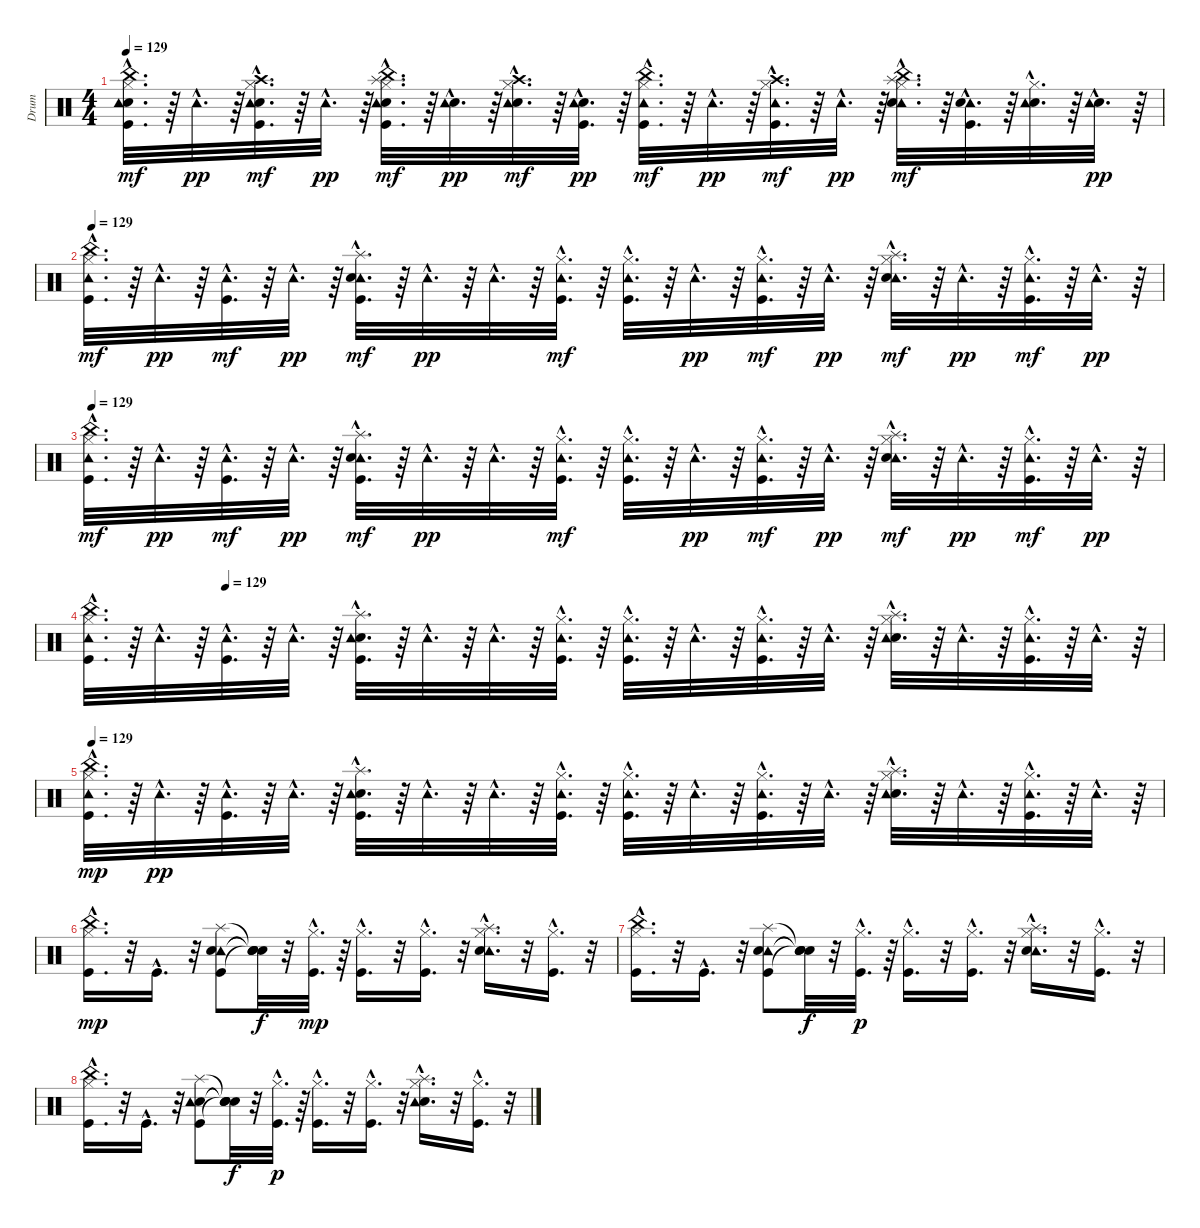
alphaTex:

\track ("Drum" "Drum") {instrument percussion}
\staff {score}
\articulation defaults
\ts (4 4)
\tempo 129
\clef neutral
\ks c
("China (hit)"{hac} "Snare (hit) 2"{hac} "Tambourine (hit)"{hac} "Kick (hit)"{hac} "Hi-Hat (closed)"{hac}).32{d dy mf} r.64 "Tambourine (hit)"{hac}.32{d dy pp} r.64 ("Crash high (hit)"{hac} "Snare (hit) 2"{hac} "Kick (hit)"{hac} "Tambourine (hit)"{hac} "Hi-Hat (closed)"{hac}).32{d dy mf} r.64 "Tambourine (hit)"{hac}.32{d dy pp} r.64 ("China (hit)"{hac} "Snare (hit) 2"{hac} "Splash (hit)"{hac} "Kick (hit)"{hac} "Tambourine (hit)"{hac} "Hi-Hat (closed)"{hac}).32{d dy mf} r.64 ("Snare (hit) 2"{hac} "Tambourine (hit)"{hac}).32{d dy pp} r.64 ("Crash high (hit)"{hac} "Snare (hit) 2"{hac} "Tambourine (hit)"{hac} "Hi-Hat (closed)"{hac}).32{d dy mf} r.64 ("Snare (hit) 2"{hac} "Kick (hit)"{hac} "Tambourine (hit)"{hac}).32{d dy pp} r.64 ("China (hit)"{hac} "Tambourine (hit)"{hac} "Hi-Hat (closed)"{hac} "Kick (hit)"{hac}).32{d dy mf} r.64 "Tambourine (hit)"{hac}.32{d dy pp} r.64 ("Crash high (hit)"{hac} "Tambourine (hit)"{hac} "Hi-Hat (closed)"{hac} "Kick (hit)"{hac}).32{d dy mf} r.64 "Tambourine (hit)"{hac}.32{d dy pp} r.64 ("China (hit)"{hac} "Tambourine (hit)"{hac} "Hi-Hat (closed)"{hac} "Snare (hit) 2"{hac} "Splash (hit)"{hac}).32{d dy mf} r.64 ("Tambourine (hit)"{hac} "Snare (hit) 2"{hac} "Kick (hit)"{hac}).32{d} r.64 ("Snare (hit) 2"{hac} "Tambourine (hit)"{hac} "Hi-Hat (closed)"{hac}).32{d} r.64 ("Snare (hit) 2"{hac} "Tambourine (hit)"{hac}).32{d dy pp} r.64 |
\tempo 129
("China (hit)"{hac} "Tambourine (hit)"{hac} "Hi-Hat (closed)"{hac} "Kick (hit)"{hac}).32{d dy mf} r.64 "Tambourine (hit)"{hac}.32{d dy pp} r.64 ("Tambourine (hit)"{hac} "Kick (hit)"{hac}).32{d dy mf} r.64 "Tambourine (hit)"{hac}.32{d dy pp} r.64 ("Tambourine (hit)"{hac} "Kick (hit)"{hac} "Snare (hit) 2"{hac} "Splash (hit)"{hac}).32{d dy mf} r.64 "Tambourine (hit)"{hac}.32{d dy pp} r.64 "Tambourine (hit)"{hac}.32{d} r.64 ("Tambourine (hit)"{hac} "Hi-Hat (closed)"{hac} "Kick (hit)"{hac}).32{d dy mf} r.64 ("Tambourine (hit)"{hac} "Hi-Hat (closed)"{hac} "Kick (hit)"{hac}).32{d} r.64 "Tambourine (hit)"{hac}.32{d dy pp} r.64 ("Tambourine (hit)"{hac} "Hi-Hat (closed)"{hac} "Kick (hit)"{hac}).32{d dy mf} r.64 "Tambourine (hit)"{hac}.32{d dy pp} r.64 ("Tambourine (hit)"{hac} "Hi-Hat (closed)"{hac} "Snare (hit) 2"{hac} "Splash (hit)"{hac}).32{d dy mf} r.64 "Tambourine (hit)"{hac}.32{d dy pp} r.64 ("Tambourine (hit)"{hac} "Hi-Hat (closed)"{hac} "Kick (hit)"{hac}).32{d dy mf} r.64 "Tambourine (hit)"{hac}.32{d dy pp} r.64 |
\tempo 129
("China (hit)"{hac} "Tambourine (hit)"{hac} "Hi-Hat (closed)"{hac} "Kick (hit)"{hac}).32{d dy mf} r.64 "Tambourine (hit)"{hac}.32{d dy pp} r.64 ("Tambourine (hit)"{hac} "Kick (hit)"{hac}).32{d dy mf} r.64 "Tambourine (hit)"{hac}.32{d dy pp} r.64 ("Tambourine (hit)"{hac} "Kick (hit)"{hac} "Snare (hit) 2"{hac} "Splash (hit)"{hac}).32{d dy mf} r.64 "Tambourine (hit)"{hac}.32{d dy pp} r.64 "Tambourine (hit)"{hac}.32{d} r.64 ("Tambourine (hit)"{hac} "Hi-Hat (closed)"{hac} "Kick (hit)"{hac}).32{d dy mf} r.64 ("Tambourine (hit)"{hac} "Hi-Hat (closed)"{hac} "Kick (hit)"{hac}).32{d} r.64 "Tambourine (hit)"{hac}.32{d dy pp} r.64 ("Tambourine (hit)"{hac} "Hi-Hat (closed)"{hac} "Kick (hit)"{hac}).32{d dy mf} r.64 "Tambourine (hit)"{hac}.32{d dy pp} r.64 ("Tambourine (hit)"{hac} "Hi-Hat (closed)"{hac} "Snare (hit) 2"{hac} "Splash (hit)"{hac}).32{d dy mf} r.64 "Tambourine (hit)"{hac}.32{d dy pp} r.64 ("Tambourine (hit)"{hac} "Hi-Hat (closed)"{hac} "Kick (hit)"{hac}).32{d dy mf} r.64 "Tambourine (hit)"{hac}.32{d dy pp} r.64 |
\tempo (129 0.125)
("China (hit)"{hac} "Kick (hit)"{hac} "Hi-Hat (closed)"{hac} "Tambourine (hit)"{hac}).32{d} r.64 "Tambourine (hit)"{hac}.32{d} r.64 ("Kick (hit)"{hac} "Tambourine (hit)"{hac}).32{d} r.64 "Tambourine (hit)"{hac}.32{d} r.64 ("Splash (hit)"{hac} "Snare (hit) 2"{hac} "Kick (hit)"{hac} "Tambourine (hit)"{hac}).32{d} r.64 "Tambourine (hit)"{hac}.32{d} r.64 "Tambourine (hit)"{hac}.32{d} r.64 ("Kick (hit)"{hac} "Hi-Hat (closed)"{hac} "Tambourine (hit)"{hac}).32{d} r.64 ("Kick (hit)"{hac} "Hi-Hat (closed)"{hac} "Tambourine (hit)"{hac}).32{d} r.64 "Tambourine (hit)"{hac}.32{d} r.64 ("Kick (hit)"{hac} "Hi-Hat (closed)"{hac} "Tambourine (hit)"{hac}).32{d} r.64 "Tambourine (hit)"{hac}.32{d} r.64 ("Splash (hit)"{hac} "Snare (hit) 2"{hac} "Hi-Hat (closed)"{hac} "Tambourine (hit)"{hac}).32{d} r.64 "Tambourine (hit)"{hac}.32{d} r.64 ("Kick (hit)"{hac} "Hi-Hat (closed)"{hac} "Tambourine (hit)"{hac}).32{d} r.64 "Tambourine (hit)"{hac}.32{d} r.64 |
\tempo 129
("Kick (hit)"{hac} "Hi-Hat (closed)"{hac} "Tambourine (hit)"{hac} "China (hit)"{hac}).32{d dy mp} r.64 "Tambourine (hit)"{hac}.32{d dy pp} r.64 ("Kick (hit)"{hac} "Tambourine (hit)"{hac}).32{d} r.64 "Tambourine (hit)"{hac}.32{d} r.64 ("Splash (hit)"{hac} "Snare (hit) 2"{hac} "Kick (hit)"{hac} "Tambourine (hit)"{hac}).32{d} r.64 "Tambourine (hit)"{hac}.32{d} r.64 "Tambourine (hit)"{hac}.32{d} r.64 ("Kick (hit)"{hac} "Hi-Hat (closed)"{hac} "Tambourine (hit)"{hac}).32{d} r.64 ("Kick (hit)"{hac} "Hi-Hat (closed)"{hac} "Tambourine (hit)"{hac}).32{d} r.64 "Tambourine (hit)"{hac}.32{d} r.64 ("Kick (hit)"{hac} "Hi-Hat (closed)"{hac} "Tambourine (hit)"{hac}).32{d} r.64 "Tambourine (hit)"{hac}.32{d} r.64 ("Splash (hit)"{hac} "Snare (hit) 2"{hac} "Hi-Hat (closed)"{hac} "Tambourine (hit)"{hac}).32{d} r.64 "Tambourine (hit)"{hac}.32{d} r.64 ("Kick (hit)"{hac} "Hi-Hat (closed)"{hac} "Tambourine (hit)"{hac}).32{d} r.64 "Tambourine (hit)"{hac}.32{d} r.64 |
("China (hit)"{hac} "Hi-Hat (closed)"{hac} "Kick (hit)"{hac}).16{d dy mp} r.32 "Kick (hit)"{hac}.16{d} r.32 ("Splash (hit)" "Tambourine (hit)" "Kick (hit)" "Snare (hit) 2").8 ("Snare (hit)"{t} "Snare (hit)"{t} "Snare (hit)"{t} "Snare (hit)"{t}).32{dy f} r.32 ("Kick (hit)"{hac} "Hi-Hat (closed)"{hac}).32{d dy mp} r.64 ("Kick (hit)"{hac} "Hi-Hat (closed)"{hac}).16{d} r.32 ("Kick (hit)"{hac} "Hi-Hat (closed)"{hac}).16{d} r.32 ("Splash (hit)"{hac} "Tambourine (hit)"{hac} "Snare (hit) 2"{hac} "Hi-Hat (closed)"{hac}).16{d} r.32 ("Kick (hit)"{hac} "Hi-Hat (closed)"{hac}).16{d} r.32 |
("China (hit)"{hac} "Hi-Hat (closed)"{hac} "Kick (hit)"{hac}).16{d} r.32 "Kick (hit)"{hac}.16{d} r.32 ("Splash (hit)" "Tambourine (hit)" "Kick (hit)" "Snare (hit) 2").8 ("Snare (hit)"{t} "Snare (hit)"{t} "Snare (hit)"{t} "Snare (hit)"{t}).32{dy f} r.32 ("Kick (hit)"{hac} "Hi-Hat (closed)"{hac}).32{d dy p} r.64 ("Kick (hit)"{hac} "Hi-Hat (closed)"{hac}).16{d} r.32 ("Kick (hit)"{hac} "Hi-Hat (closed)"{hac}).16{d} r.32 ("Splash (hit)"{hac} "Tambourine (hit)"{hac} "Snare (hit) 2"{hac} "Hi-Hat (closed)"{hac}).16{d} r.32 ("Kick (hit)"{hac} "Hi-Hat (closed)"{hac}).16{d} r.32 |
("China (hit)"{hac} "Kick (hit)"{hac} "Hi-Hat (closed)"{hac}).16{d} r.32 "Kick (hit)"{hac}.16{d} r.32 ("Splash (hit)" "Snare (hit) 2" "Kick (hit)" "Tambourine (hit)").8 ("Snare (hit)"{t} "Snare (hit)"{t} "Snare (hit)"{t} "Snare (hit)"{t}).32{dy f} r.32 ("Hi-Hat (closed)"{hac} "Kick (hit)"{hac}).32{d dy p} r.64 ("Hi-Hat (closed)"{hac} "Kick (hit)"{hac}).16{d} r.32 ("Hi-Hat (closed)"{hac} "Kick (hit)"{hac}).16{d} r.32 ("Splash (hit)"{hac} "Hi-Hat (closed)"{hac} "Snare (hit) 2"{hac} "Tambourine (hit)"{hac}).16{d} r.32 ("Hi-Hat (closed)"{hac} "Kick (hit)"{hac}).16{d} r.32
